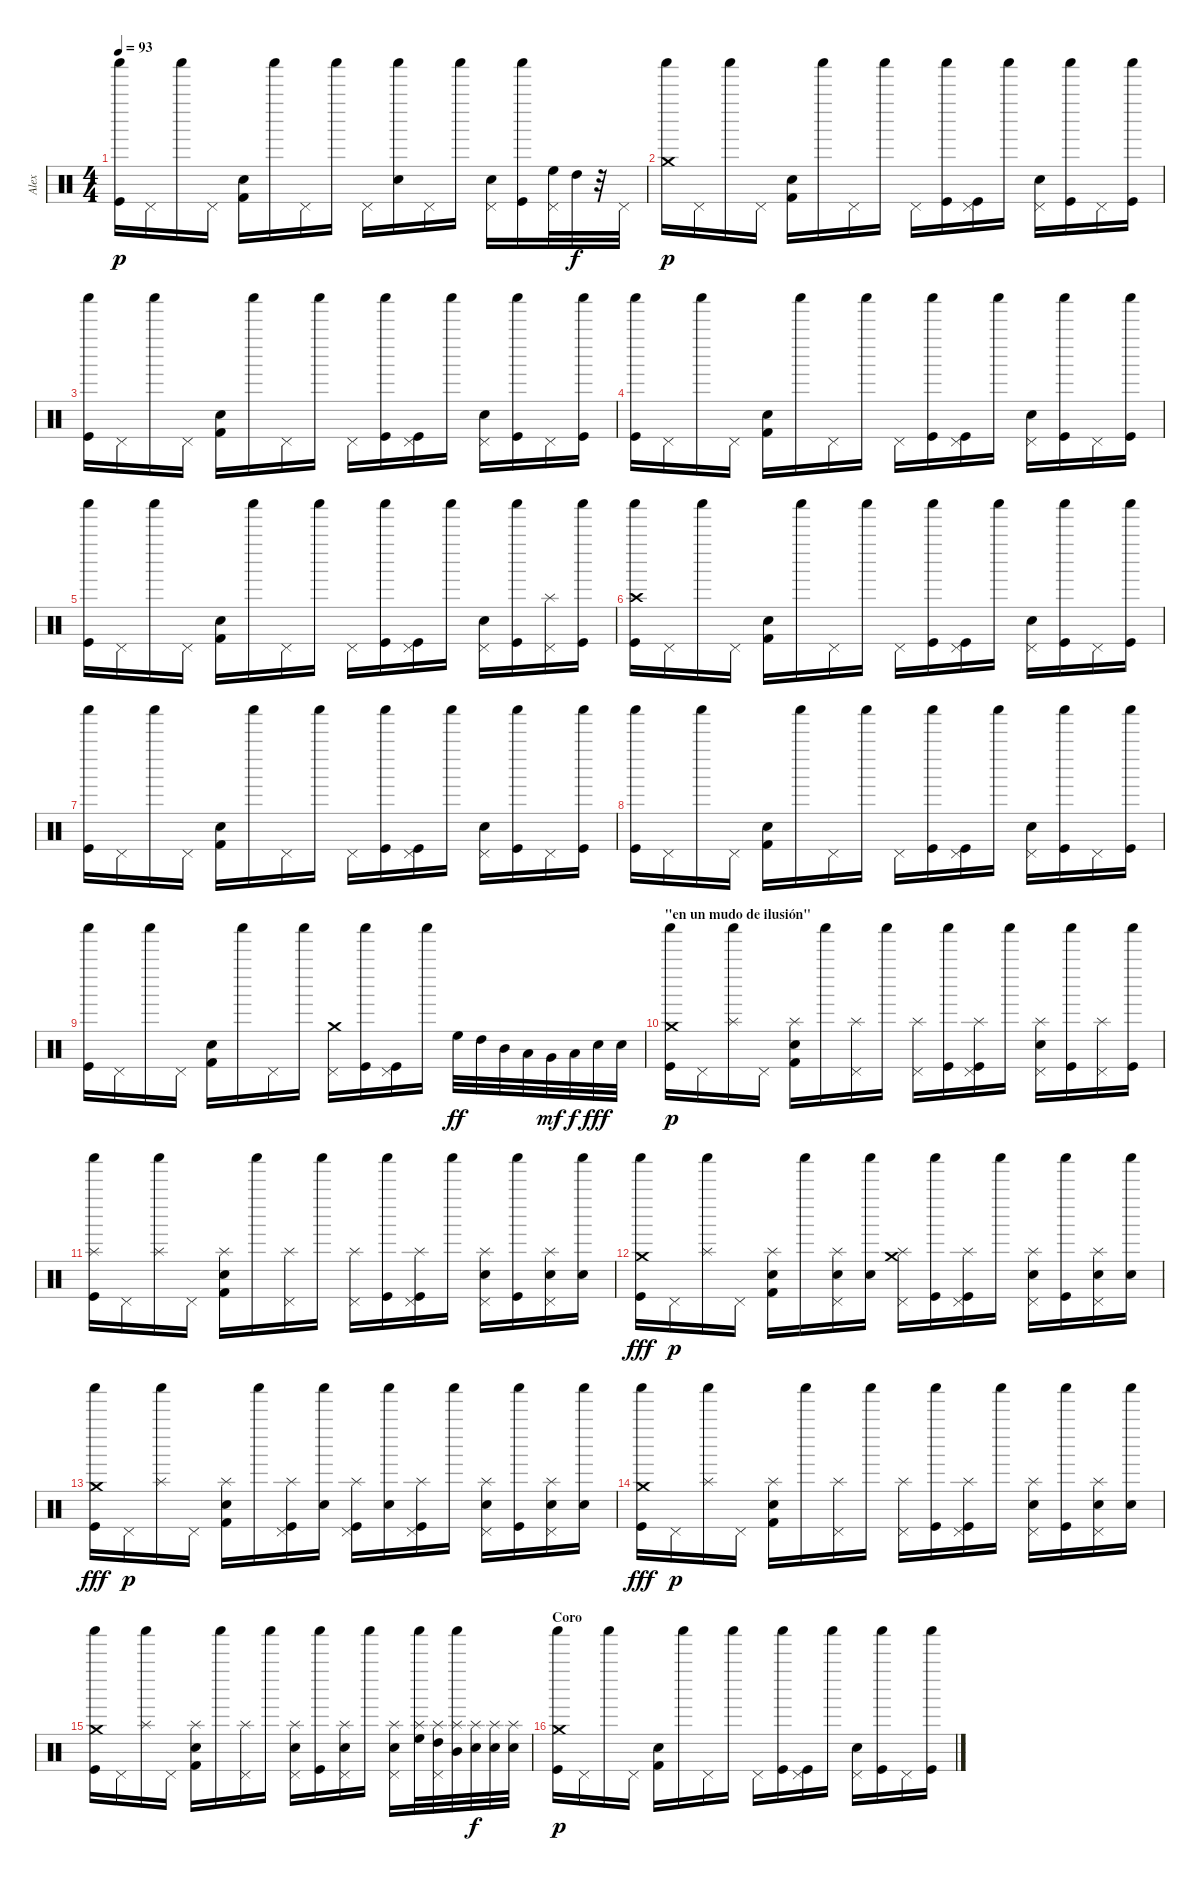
\track ("Alex" "Alex") {instrument percussion}
\staff {score}
\articulation defaults
\ts (4 4)
\tempo 93
\clef neutral
\ks c
("Kick (hit)" "Shaker (hit)").16{dy p} "Pedal Hi-Hat (hit)".16 "Shaker (hit)".16 "Pedal Hi-Hat (hit)".16 ("Electric Snare (hit)" "Kick (hit) 2").16 "Shaker (hit)".16 "Pedal Hi-Hat (hit)".16 "Shaker (hit)".16 "Pedal Hi-Hat (hit)".16 ("Electric Snare (hit)" "Shaker (hit)").16 "Pedal Hi-Hat (hit)".16 "Shaker (hit)".16 ("Electric Snare (hit)" "Pedal Hi-Hat (hit)").16 ("Kick (hit)" "Shaker (hit)").16 ("High Floor Tom (hit)" "Pedal Hi-Hat (hit)").32 "High Tom (hit)".32{dy f} r.32 "Pedal Hi-Hat (hit)".32 |
("Crash medium (hit)" "Shaker (hit)").16{dy p} "Pedal Hi-Hat (hit)".16 "Shaker (hit)".16 "Pedal Hi-Hat (hit)".16 ("Electric Snare (hit)" "Kick (hit) 2").16 "Shaker (hit)".16 "Pedal Hi-Hat (hit)".16 "Shaker (hit)".16 "Pedal Hi-Hat (hit)".16 ("Kick (hit)" "Shaker (hit)").16 ("Kick (hit)" "Pedal Hi-Hat (hit)").16 "Shaker (hit)".16 ("Electric Snare (hit)" "Pedal Hi-Hat (hit)").16 ("Kick (hit)" "Shaker (hit)").16 "Pedal Hi-Hat (hit)".16 ("Kick (hit)" "Shaker (hit)").16 |
("Kick (hit)" "Shaker (hit)").16 "Pedal Hi-Hat (hit)".16 "Shaker (hit)".16 "Pedal Hi-Hat (hit)".16 ("Electric Snare (hit)" "Kick (hit) 2").16 "Shaker (hit)".16 "Pedal Hi-Hat (hit)".16 "Shaker (hit)".16 "Pedal Hi-Hat (hit)".16 ("Kick (hit)" "Shaker (hit)").16 ("Kick (hit)" "Pedal Hi-Hat (hit)").16 "Shaker (hit)".16 ("Electric Snare (hit)" "Pedal Hi-Hat (hit)").16 ("Kick (hit)" "Shaker (hit)").16 "Pedal Hi-Hat (hit)".16 ("Kick (hit)" "Shaker (hit)").16 |
("Kick (hit)" "Shaker (hit)").16 "Pedal Hi-Hat (hit)".16 "Shaker (hit)".16 "Pedal Hi-Hat (hit)".16 ("Electric Snare (hit)" "Kick (hit) 2").16 "Shaker (hit)".16 "Pedal Hi-Hat (hit)".16 "Shaker (hit)".16 "Pedal Hi-Hat (hit)".16 ("Kick (hit)" "Shaker (hit)").16 ("Kick (hit)" "Pedal Hi-Hat (hit)").16 "Shaker (hit)".16 ("Electric Snare (hit)" "Pedal Hi-Hat (hit)").16 ("Kick (hit)" "Shaker (hit)").16 "Pedal Hi-Hat (hit)".16 ("Kick (hit)" "Shaker (hit)").16 |
("Kick (hit)" "Shaker (hit)").16 "Pedal Hi-Hat (hit)".16 "Shaker (hit)".16 "Pedal Hi-Hat (hit)".16 ("Electric Snare (hit)" "Kick (hit) 2").16 "Shaker (hit)".16 "Pedal Hi-Hat (hit)".16 "Shaker (hit)".16 "Pedal Hi-Hat (hit)".16 ("Kick (hit)" "Shaker (hit)").16 ("Kick (hit)" "Pedal Hi-Hat (hit)").16 "Shaker (hit)".16 ("Electric Snare (hit)" "Pedal Hi-Hat (hit)").16 ("Kick (hit)" "Shaker (hit)").16 ("Pedal Hi-Hat (hit)" "Splash (hit)").16 ("Kick (hit)" "Shaker (hit)").16 |
("Kick (hit)" "Shaker (hit)" "Crash high (hit)").16 "Pedal Hi-Hat (hit)".16 "Shaker (hit)".16 "Pedal Hi-Hat (hit)".16 ("Electric Snare (hit)" "Kick (hit) 2").16 "Shaker (hit)".16 "Pedal Hi-Hat (hit)".16 "Shaker (hit)".16 "Pedal Hi-Hat (hit)".16 ("Kick (hit)" "Shaker (hit)").16 ("Kick (hit)" "Pedal Hi-Hat (hit)").16 "Shaker (hit)".16 ("Electric Snare (hit)" "Pedal Hi-Hat (hit)").16 ("Kick (hit)" "Shaker (hit)").16 "Pedal Hi-Hat (hit)".16 ("Kick (hit)" "Shaker (hit)").16 |
("Kick (hit)" "Shaker (hit)").16 "Pedal Hi-Hat (hit)".16 "Shaker (hit)".16 "Pedal Hi-Hat (hit)".16 ("Electric Snare (hit)" "Kick (hit) 2").16 "Shaker (hit)".16 "Pedal Hi-Hat (hit)".16 "Shaker (hit)".16 "Pedal Hi-Hat (hit)".16 ("Kick (hit)" "Shaker (hit)").16 ("Kick (hit)" "Pedal Hi-Hat (hit)").16 "Shaker (hit)".16 ("Electric Snare (hit)" "Pedal Hi-Hat (hit)").16 ("Kick (hit)" "Shaker (hit)").16 "Pedal Hi-Hat (hit)".16 ("Kick (hit)" "Shaker (hit)").16 |
("Kick (hit)" "Shaker (hit)").16 "Pedal Hi-Hat (hit)".16 "Shaker (hit)".16 "Pedal Hi-Hat (hit)".16 ("Electric Snare (hit)" "Kick (hit) 2").16 "Shaker (hit)".16 "Pedal Hi-Hat (hit)".16 "Shaker (hit)".16 "Pedal Hi-Hat (hit)".16 ("Kick (hit)" "Shaker (hit)").16 ("Kick (hit)" "Pedal Hi-Hat (hit)").16 "Shaker (hit)".16 ("Electric Snare (hit)" "Pedal Hi-Hat (hit)").16 ("Kick (hit)" "Shaker (hit)").16 "Pedal Hi-Hat (hit)".16 ("Kick (hit)" "Shaker (hit)").16 |
("Kick (hit)" "Shaker (hit)").16 "Pedal Hi-Hat (hit)".16 "Shaker (hit)".16 "Pedal Hi-Hat (hit)".16 ("Electric Snare (hit)" "Kick (hit) 2").16 "Shaker (hit)".16 "Pedal Hi-Hat (hit)".16 "Shaker (hit)".16 ("Crash medium (hit)" "Pedal Hi-Hat (hit)").16 ("Kick (hit)" "Shaker (hit)").16 ("Kick (hit)" "Pedal Hi-Hat (hit)").16 "Shaker (hit)".16 "High Floor Tom (hit)".32{dy ff} "High Tom (hit)".32 "Mid Tom (hit)".32 "Low Tom (hit)".32 "Very Low Tom (hit)".32{dy mf} "Low Floor Tom (hit)".32{dy f} "Electric Snare (hit)".32{dy fff} "Electric Snare (hit)".32 |
\section ("" "\"en un mudo de ilusión\"")
("Kick (hit)" "Shaker (hit)" "Crash medium (hit)").16{dy p} "Pedal Hi-Hat (hit)".16 ("Shaker (hit)" "Splash (hit)").16 "Pedal Hi-Hat (hit)".16 ("Electric Snare (hit)" "Kick (hit) 2" "Splash (hit)").16 "Shaker (hit)".16 ("Pedal Hi-Hat (hit)" "Splash (hit)").16 "Shaker (hit)".16 ("Pedal Hi-Hat (hit)" "Splash (hit)").16 ("Kick (hit)" "Shaker (hit)").16 ("Kick (hit)" "Pedal Hi-Hat (hit)" "Splash (hit)").16 "Shaker (hit)".16 ("Electric Snare (hit)" "Pedal Hi-Hat (hit)" "Splash (hit)").16 ("Kick (hit)" "Shaker (hit)").16 ("Pedal Hi-Hat (hit)" "Splash (hit)").16 ("Kick (hit)" "Shaker (hit)").16 |
("Kick (hit)" "Shaker (hit)" "Splash (hit)").16 "Pedal Hi-Hat (hit)".16 ("Shaker (hit)" "Splash (hit)").16 "Pedal Hi-Hat (hit)".16 ("Electric Snare (hit)" "Kick (hit) 2" "Splash (hit)").16 "Shaker (hit)".16 ("Pedal Hi-Hat (hit)" "Splash (hit)").16 "Shaker (hit)".16 ("Pedal Hi-Hat (hit)" "Splash (hit)").16 ("Kick (hit)" "Shaker (hit)").16 ("Kick (hit)" "Pedal Hi-Hat (hit)" "Splash (hit)").16 "Shaker (hit)".16 ("Electric Snare (hit)" "Pedal Hi-Hat (hit)" "Splash (hit)").16 ("Kick (hit)" "Shaker (hit)").16 ("Electric Snare (hit)" "Pedal Hi-Hat (hit)" "Splash (hit)").16 ("Electric Snare (hit)" "Shaker (hit)").16 |
("Kick (hit)" "Shaker (hit)" "Crash medium (hit)").16{dy fff} "Pedal Hi-Hat (hit)".16{dy p} ("Shaker (hit)" "Splash (hit)").16 "Pedal Hi-Hat (hit)".16 ("Electric Snare (hit)" "Kick (hit) 2" "Splash (hit)").16 "Shaker (hit)".16 ("Electric Snare (hit)" "Pedal Hi-Hat (hit)" "Splash (hit)").16 ("Electric Snare (hit)" "Shaker (hit)").16 ("Crash medium (hit)" "Pedal Hi-Hat (hit)" "Splash (hit)").16 ("Kick (hit)" "Shaker (hit)").16 ("Kick (hit)" "Pedal Hi-Hat (hit)" "Splash (hit)").16 "Shaker (hit)".16 ("Electric Snare (hit)" "Pedal Hi-Hat (hit)" "Splash (hit)").16 ("Kick (hit)" "Shaker (hit)").16 ("Electric Snare (hit)" "Pedal Hi-Hat (hit)" "Splash (hit)").16 ("Electric Snare (hit)" "Shaker (hit)").16 |
("Kick (hit)" "Shaker (hit)" "Crash medium (hit)").16{dy fff} "Pedal Hi-Hat (hit)".16{dy p} ("Shaker (hit)" "Splash (hit)").16 "Pedal Hi-Hat (hit)".16 ("Electric Snare (hit)" "Kick (hit) 2" "Splash (hit)").16 "Shaker (hit)".16 ("Kick (hit)" "Pedal Hi-Hat (hit)" "Splash (hit)").16 ("Electric Snare (hit)" "Shaker (hit)").16 ("Kick (hit)" "Pedal Hi-Hat (hit)" "Splash (hit)").16 ("Electric Snare (hit)" "Shaker (hit)").16 ("Kick (hit)" "Pedal Hi-Hat (hit)" "Splash (hit)").16 "Shaker (hit)".16 ("Electric Snare (hit)" "Pedal Hi-Hat (hit)" "Splash (hit)").16 ("Kick (hit)" "Shaker (hit)").16 ("Electric Snare (hit)" "Pedal Hi-Hat (hit)" "Splash (hit)").16 ("Electric Snare (hit)" "Shaker (hit)").16 |
("Kick (hit)" "Shaker (hit)" "Crash medium (hit)").16{dy fff} "Pedal Hi-Hat (hit)".16{dy p} ("Shaker (hit)" "Splash (hit)").16 "Pedal Hi-Hat (hit)".16 ("Electric Snare (hit)" "Kick (hit) 2" "Splash (hit)").16 "Shaker (hit)".16 ("Pedal Hi-Hat (hit)" "Splash (hit)").16 "Shaker (hit)".16 ("Pedal Hi-Hat (hit)" "Splash (hit)").16 ("Kick (hit)" "Shaker (hit)").16 ("Kick (hit)" "Pedal Hi-Hat (hit)" "Splash (hit)").16 "Shaker (hit)".16 ("Electric Snare (hit)" "Pedal Hi-Hat (hit)" "Splash (hit)").16 ("Kick (hit)" "Shaker (hit)").16 ("Electric Snare (hit)" "Pedal Hi-Hat (hit)" "Splash (hit)").16 ("Electric Snare (hit)" "Shaker (hit)").16 |
("Kick (hit)" "Shaker (hit)" "Crash medium (hit)").16 "Pedal Hi-Hat (hit)".16 ("Shaker (hit)" "Splash (hit)").16 "Pedal Hi-Hat (hit)".16 ("Electric Snare (hit)" "Kick (hit) 2" "Splash (hit)").16 "Shaker (hit)".16 ("Pedal Hi-Hat (hit)" "Splash (hit)").16 "Shaker (hit)".16 ("Electric Snare (hit)" "Pedal Hi-Hat (hit)" "Splash (hit)").16 ("Kick (hit)" "Shaker (hit)").16 ("Electric Snare (hit)" "Pedal Hi-Hat (hit)" "Splash (hit)").16 "Shaker (hit)".16 ("Electric Snare (hit)" "Pedal Hi-Hat (hit)" "Splash (hit)").16 ("High Floor Tom (hit)" "Shaker (hit)" "Splash (hit)").32 ("High Tom (hit)" "Pedal Hi-Hat (hit)" "Splash (hit)").32 ("Mid Tom (hit)" "Shaker (hit)" "Splash (hit)").32 ("Electric Snare (hit)" "Splash (hit)").32{dy f} ("Electric Snare (hit)" "Splash (hit)").32 ("Electric Snare (hit)" "Splash (hit)").32 |
\section ("" "Coro")
("Kick (hit)" "Shaker (hit)" "Crash medium (hit)").16{dy p} "Pedal Hi-Hat (hit)".16 "Shaker (hit)".16 "Pedal Hi-Hat (hit)".16 ("Electric Snare (hit)" "Kick (hit) 2").16 "Shaker (hit)".16 "Pedal Hi-Hat (hit)".16 "Shaker (hit)".16 "Pedal Hi-Hat (hit)".16 ("Kick (hit)" "Shaker (hit)").16 ("Kick (hit)" "Pedal Hi-Hat (hit)").16 "Shaker (hit)".16 ("Electric Snare (hit)" "Pedal Hi-Hat (hit)").16 ("Kick (hit)" "Shaker (hit)").16 "Pedal Hi-Hat (hit)".16 ("Kick (hit)" "Shaker (hit)").16
